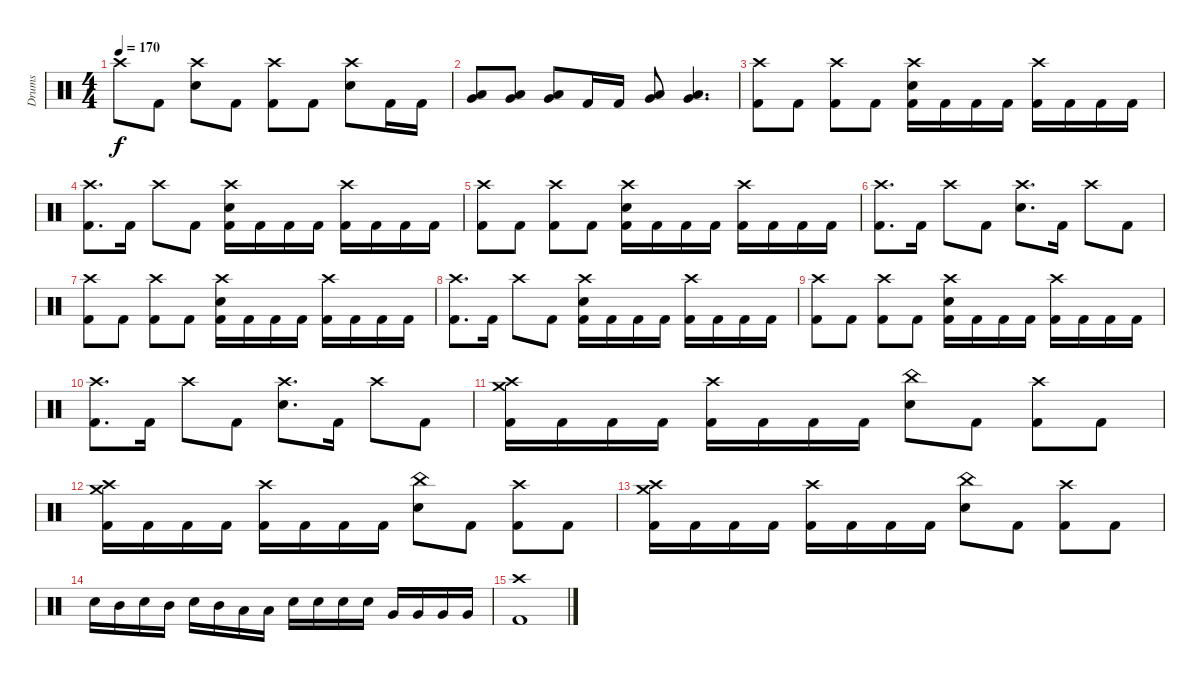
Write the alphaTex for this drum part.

\track ("Drums" "Drums") {instrument percussion}
\staff {score}
\articulation defaults
\ts (4 4)
\tempo 170
\clef neutral
\ks c "Crash high (hit)".8{dy f} "Kick (hit) 2".8
("Crash high (hit)" "Electric Snare (hit)").8 "Kick (hit) 2".8 ("Crash high (hit)" "Kick (hit) 2").8 "Kick (hit) 2".8 ("Crash high (hit)" "Electric Snare (hit)").8 "Kick (hit) 2".16 "Kick (hit) 2".16 |
("Very Low Tom (hit)" "Low Tom (hit)").8 ("Very Low Tom (hit)" "Low Tom (hit)").8 ("Very Low Tom (hit)" "Low Tom (hit)").8 "Kick (hit) 2".16 "Kick (hit) 2".16 ("Very Low Tom (hit)" "Low Tom (hit)").8 ("Very Low Tom (hit)" "Low Tom (hit)").4{d} |
("Crash high (hit)" "Kick (hit) 2").8 "Kick (hit) 2".8 ("Crash high (hit)" "Kick (hit) 2").8 "Kick (hit) 2".8 ("Crash high (hit)" "Electric Snare (hit)" "Kick (hit) 2").16 "Kick (hit) 2".16 "Kick (hit) 2".16 "Kick (hit) 2".16 ("Crash high (hit)" "Kick (hit) 2").16 "Kick (hit) 2".16 "Kick (hit) 2".16 "Kick (hit) 2".16 |
("Crash high (hit)" "Kick (hit) 2").8{d} "Kick (hit) 2".16 "Crash high (hit)".8 "Kick (hit) 2".8 ("Crash high (hit)" "Electric Snare (hit)" "Kick (hit) 2").16 "Kick (hit) 2".16 "Kick (hit) 2".16 "Kick (hit) 2".16 ("Crash high (hit)" "Kick (hit) 2").16 "Kick (hit) 2".16 "Kick (hit) 2".16 "Kick (hit) 2".16 |
("Crash high (hit)" "Kick (hit) 2").8 "Kick (hit) 2".8 ("Crash high (hit)" "Kick (hit) 2").8 "Kick (hit) 2".8 ("Crash high (hit)" "Electric Snare (hit)" "Kick (hit) 2").16 "Kick (hit) 2".16 "Kick (hit) 2".16 "Kick (hit) 2".16 ("Crash high (hit)" "Kick (hit) 2").16 "Kick (hit) 2".16 "Kick (hit) 2".16 "Kick (hit) 2".16 |
("Crash high (hit)" "Kick (hit) 2").8{d} "Kick (hit) 2".16 "Crash high (hit)".8 "Kick (hit) 2".8 ("Crash high (hit)" "Electric Snare (hit)").8{d} "Kick (hit) 2".16 "Crash high (hit)".8 "Kick (hit) 2".8 |
("Crash high (hit)" "Kick (hit) 2").8 "Kick (hit) 2".8 ("Crash high (hit)" "Kick (hit) 2").8 "Kick (hit) 2".8 ("Crash high (hit)" "Electric Snare (hit)" "Kick (hit) 2").16 "Kick (hit) 2".16 "Kick (hit) 2".16 "Kick (hit) 2".16 ("Crash high (hit)" "Kick (hit) 2").16 "Kick (hit) 2".16 "Kick (hit) 2".16 "Kick (hit) 2".16 |
("Crash high (hit)" "Kick (hit) 2").8{d} "Kick (hit) 2".16 "Crash high (hit)".8 "Kick (hit) 2".8 ("Crash high (hit)" "Electric Snare (hit)" "Kick (hit) 2").16 "Kick (hit) 2".16 "Kick (hit) 2".16 "Kick (hit) 2".16 ("Crash high (hit)" "Kick (hit) 2").16 "Kick (hit) 2".16 "Kick (hit) 2".16 "Kick (hit) 2".16 |
("Crash high (hit)" "Kick (hit) 2").8 "Kick (hit) 2".8 ("Crash high (hit)" "Kick (hit) 2").8 "Kick (hit) 2".8 ("Crash high (hit)" "Electric Snare (hit)" "Kick (hit) 2").16 "Kick (hit) 2".16 "Kick (hit) 2".16 "Kick (hit) 2".16 ("Crash high (hit)" "Kick (hit) 2").16 "Kick (hit) 2".16 "Kick (hit) 2".16 "Kick (hit) 2".16 |
("Crash high (hit)" "Kick (hit) 2").8{d} "Kick (hit) 2".16 "Crash high (hit)".8 "Kick (hit) 2".8 ("Crash high (hit)" "Electric Snare (hit)").8{d} "Kick (hit) 2".16 "Crash high (hit)".8 "Kick (hit) 2".8 |
("Crash high (hit)" "Crash medium (hit)" "Kick (hit) 2").16 "Kick (hit) 2".16 "Kick (hit) 2".16 "Kick (hit) 2".16 ("Crash high (hit)" "Kick (hit) 2").16 "Kick (hit) 2".16 "Kick (hit) 2".16 "Kick (hit) 2".16 ("China (hit)" "Electric Snare (hit)").8 "Kick (hit) 2".8 ("Crash high (hit)" "Kick (hit) 2").8 "Kick (hit) 2".8 |
("Crash high (hit)" "Crash medium (hit)" "Kick (hit) 2").16 "Kick (hit) 2".16 "Kick (hit) 2".16 "Kick (hit) 2".16 ("Crash high (hit)" "Kick (hit) 2").16 "Kick (hit) 2".16 "Kick (hit) 2".16 "Kick (hit) 2".16 ("China (hit)" "Electric Snare (hit)").8 "Kick (hit) 2".8 ("Crash high (hit)" "Kick (hit) 2").8 "Kick (hit) 2".8 |
("Crash high (hit)" "Crash medium (hit)" "Kick (hit) 2").16 "Kick (hit) 2".16 "Kick (hit) 2".16 "Kick (hit) 2".16 ("Crash high (hit)" "Kick (hit) 2").16 "Kick (hit) 2".16 "Kick (hit) 2".16 "Kick (hit) 2".16 ("China (hit)" "Electric Snare (hit)").8 "Kick (hit) 2".8 ("Crash high (hit)" "Kick (hit) 2").8 "Kick (hit) 2".8 |
"Electric Snare (hit)".16 "Mid Tom (hit)".16 "Electric Snare (hit)".16 "Mid Tom (hit)".16 "Electric Snare (hit)".16 "Mid Tom (hit)".16 "Low Tom (hit)".16 "Low Tom (hit)".16 "Electric Snare (hit)".16 "Electric Snare (hit)".16 "Electric Snare (hit)".16 "Electric Snare (hit)".16 "Very Low Tom (hit)".16 "Very Low Tom (hit)".16 "Very Low Tom (hit)".16 "Very Low Tom (hit)".16 |
("Crash high (hit)" "Kick (hit) 2").1
